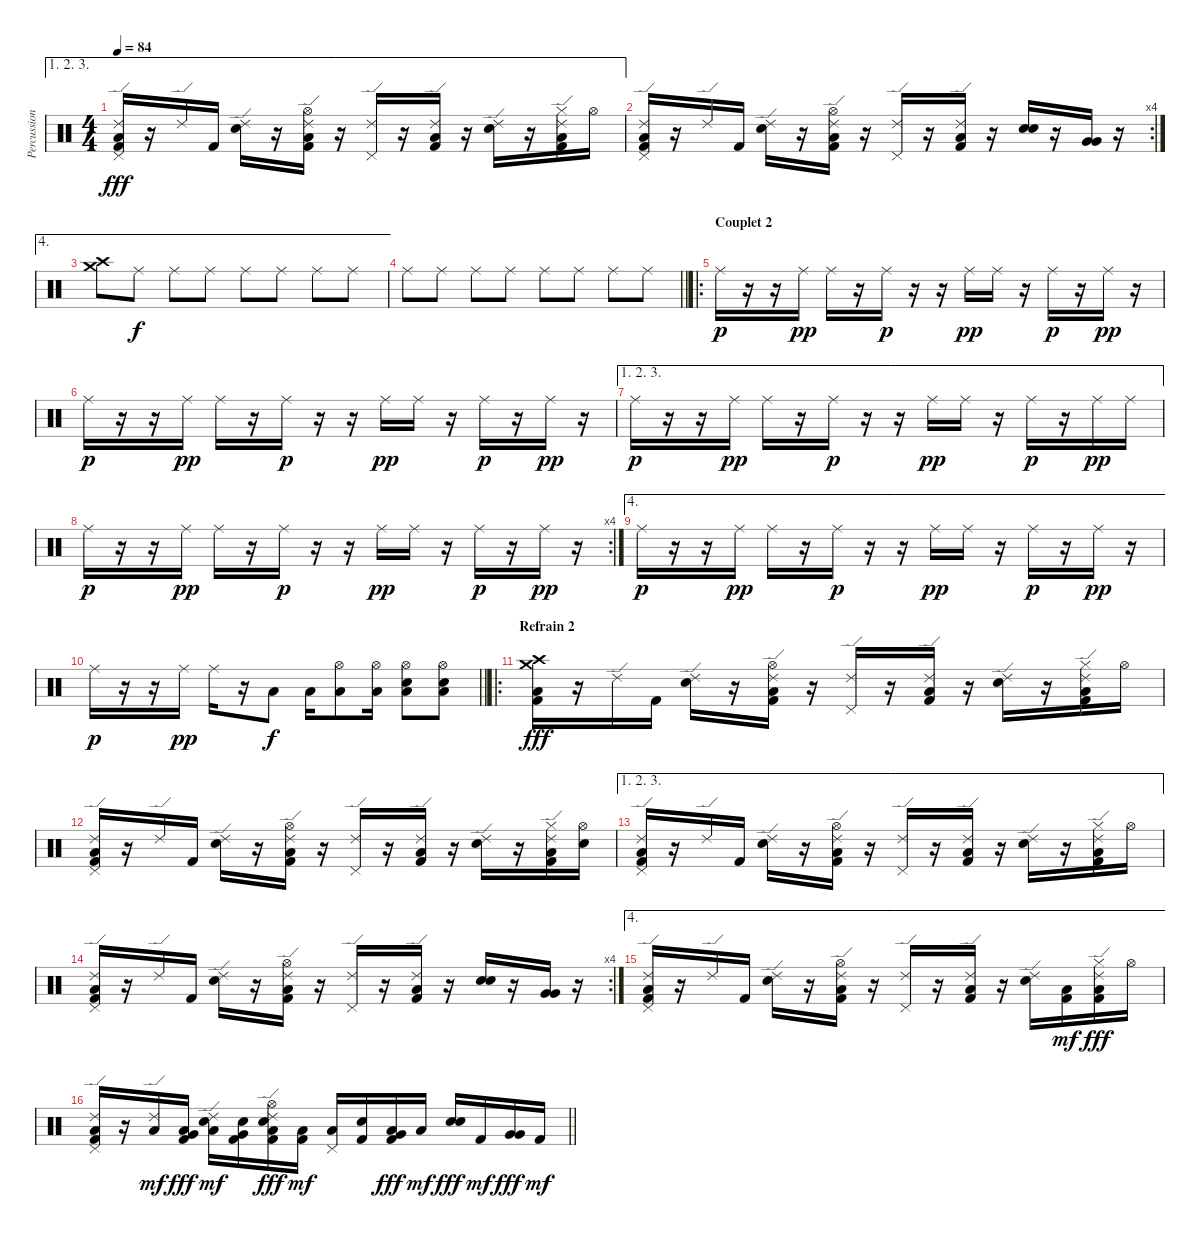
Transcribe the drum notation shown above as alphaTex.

\track ("Percussions" "Percussion") {instrument percussion}
\staff {score}
\articulation defaults
\ae (1 2 3)
\ts (4 4)
\tempo 84
\clef neutral
\ks c
("Ride (edge) 2" "Pedal Hi-Hat (hit)" "Low Floor Tom (hit)" "Kick (hit) 2").16{dy fff} r.16 "Ride (edge) 2".16 "Kick (hit) 2".16 ("Ride (edge) 2" "Electric Snare (hit)").16 r.16 ("Ride (edge) 2" "Hi-Hat (open)" "Low Floor Tom (hit)" "Kick (hit) 2").16 r.16 ("Ride (edge) 2" "Pedal Hi-Hat (hit)").16 r.16 ("Ride (edge) 2" "Low Floor Tom (hit)" "Kick (hit) 2").16 r.16 ("Ride (edge) 2" "Electric Snare (hit)").16 r.16 ("Ride (edge) 2" "Hi-Hat (closed)" "Low Floor Tom (hit)" "Kick (hit) 2").16 "Hi-Hat (open)".16 |
\rc 4
("Ride (edge) 2" "Pedal Hi-Hat (hit)" "Low Floor Tom (hit)" "Kick (hit) 2").16 r.16 "Ride (edge) 2".16 "Kick (hit) 2".16 ("Ride (edge) 2" "Electric Snare (hit)").16 r.16 ("Ride (edge) 2" "Hi-Hat (open)" "Low Floor Tom (hit)" "Kick (hit) 2").16 r.16 ("Ride (edge) 2" "Pedal Hi-Hat (hit)").16 r.16 ("Ride (edge) 2" "Low Floor Tom (hit)" "Kick (hit) 2").16 r.16 ("Electric Snare (hit)" "Electric Snare (hit)").16 r.16 ("Very Low Tom (hit)" "Very Low Tom (hit)").16 r.16 |
\ae 4
("Crash high (hit)" "Crash medium (hit)").8{volume 13} "Ride (middle)".8{dy f} "Ride (middle)".8 "Ride (middle)".8 "Ride (middle)".8 "Ride (middle)".8 "Ride (middle)".8 "Ride (middle)".8 |
\barLineRight lightlight "Ride (middle)".8 "Ride (middle)".8 "Ride (middle)".8 "Ride (middle)".8 "Ride (middle)".8 "Ride (middle)".8 "Ride (middle)".8 "Ride (middle)".8
|
\ro
\section ("" "Couplet 2")
"Ride (middle)".16{dy p volume 13} r.16 r.16 "Ride (middle)".16{dy pp} "Ride (middle)".16 r.16 "Ride (middle)".16{dy p} r.16 r.16 "Ride (middle)".16{dy pp} "Ride (middle)".16 r.16 "Ride (middle)".16{dy p} r.16 "Ride (middle)".16{dy pp} r.16 |
"Ride (middle)".16{dy p} r.16 r.16 "Ride (middle)".16{dy pp} "Ride (middle)".16 r.16 "Ride (middle)".16{dy p} r.16 r.16 "Ride (middle)".16{dy pp} "Ride (middle)".16 r.16 "Ride (middle)".16{dy p} r.16 "Ride (middle)".16{dy pp} r.16 |
\ae (1 2 3)
"Ride (middle)".16{dy p} r.16 r.16 "Ride (middle)".16{dy pp} "Ride (middle)".16 r.16 "Ride (middle)".16{dy p} r.16 r.16 "Ride (middle)".16{dy pp} "Ride (middle)".16 r.16 "Ride (middle)".16{dy p} r.16 "Ride (middle)".16{dy pp} "Ride (middle)".16 |
\rc 4 "Ride (middle)".16{dy p}
r.16 r.16 "Ride (middle)".16{dy pp} "Ride (middle)".16 r.16 "Ride (middle)".16{dy p} r.16 r.16 "Ride (middle)".16{dy pp} "Ride (middle)".16 r.16 "Ride (middle)".16{dy p} r.16 "Ride (middle)".16{dy pp} r.16 |
\ae 4 "Ride (middle)".16{dy p}
r.16 r.16 "Ride (middle)".16{dy pp} "Ride (middle)".16 r.16 "Ride (middle)".16{dy p} r.16 r.16 "Ride (middle)".16{dy pp} "Ride (middle)".16 r.16 "Ride (middle)".16{dy p} r.16 "Ride (middle)".16{dy pp} r.16 |
\barLineRight lightlight "Ride (middle)".16{dy p volume 16}
r.16 r.16 "Ride (middle)".16{dy pp} "Ride (middle)".16 r.16 "Low Floor Tom (hit)".8{dy f} "Low Floor Tom (hit)".16 ("Hi-Hat (open)" "Low Floor Tom (hit)").8 ("Hi-Hat (open)" "Low Floor Tom (hit)").16 ("Electric Snare (hit)" "Hi-Hat (open)" "Low Floor Tom (hit)").8 ("Electric Snare (hit)" "Hi-Hat (open)" "Low Floor Tom (hit)").8 |
\ro
\section ("" "Refrain 2")
("Crash medium (hit)" "Crash high (hit)" "Low Floor Tom (hit)" "Kick (hit) 2").16{dy fff} r.16 "Ride (edge) 2".16 "Kick (hit) 2".16 ("Ride (edge) 2" "Electric Snare (hit)").16 r.16 ("Ride (edge) 2" "Hi-Hat (open)" "Low Floor Tom (hit)" "Kick (hit) 2").16 r.16 ("Ride (edge) 2" "Pedal Hi-Hat (hit)").16 r.16 ("Ride (edge) 2" "Low Floor Tom (hit)" "Kick (hit) 2").16 r.16 ("Ride (edge) 2" "Electric Snare (hit)").16 r.16 ("Ride (edge) 2" "Hi-Hat (closed)" "Low Floor Tom (hit)" "Kick (hit) 2").16 "Hi-Hat (open)".16 |
("Ride (edge) 2" "Pedal Hi-Hat (hit)" "Low Floor Tom (hit)" "Kick (hit) 2").16 r.16 "Ride (edge) 2".16 "Kick (hit) 2".16 ("Ride (edge) 2" "Electric Snare (hit)").16 r.16 ("Ride (edge) 2" "Hi-Hat (open)" "Low Floor Tom (hit)" "Kick (hit) 2").16 r.16 ("Ride (edge) 2" "Pedal Hi-Hat (hit)").16 r.16 ("Ride (edge) 2" "Low Floor Tom (hit)" "Kick (hit) 2").16 r.16 ("Ride (edge) 2" "Electric Snare (hit)").16 r.16 ("Ride (edge) 2" "Hi-Hat (closed)" "Low Floor Tom (hit)" "Kick (hit) 2").16 ("Hi-Hat (open)" "Electric Snare (hit)").16 |
\ae (1 2 3)
("Ride (edge) 2" "Pedal Hi-Hat (hit)" "Low Floor Tom (hit)" "Kick (hit) 2").16 r.16 "Ride (edge) 2".16 "Kick (hit) 2".16 ("Ride (edge) 2" "Electric Snare (hit)").16 r.16 ("Ride (edge) 2" "Hi-Hat (open)" "Low Floor Tom (hit)" "Kick (hit) 2").16 r.16 ("Ride (edge) 2" "Pedal Hi-Hat (hit)").16 r.16 ("Ride (edge) 2" "Low Floor Tom (hit)" "Kick (hit) 2").16 r.16 ("Ride (edge) 2" "Electric Snare (hit)").16 r.16 ("Ride (edge) 2" "Hi-Hat (closed)" "Low Floor Tom (hit)" "Kick (hit) 2").16 "Hi-Hat (open)".16 |
\rc 4
("Ride (edge) 2" "Pedal Hi-Hat (hit)" "Low Floor Tom (hit)" "Kick (hit) 2").16 r.16 "Ride (edge) 2".16 "Kick (hit) 2".16 ("Ride (edge) 2" "Electric Snare (hit)").16 r.16 ("Ride (edge) 2" "Hi-Hat (open)" "Low Floor Tom (hit)" "Kick (hit) 2").16 r.16 ("Ride (edge) 2" "Pedal Hi-Hat (hit)").16 r.16 ("Ride (edge) 2" "Low Floor Tom (hit)" "Kick (hit) 2").16 r.16 ("Electric Snare (hit)" "Electric Snare (hit)").16 r.16 ("Very Low Tom (hit)" "Very Low Tom (hit)").16 r.16 |
\ae 4
("Ride (edge) 2" "Pedal Hi-Hat (hit)" "Low Floor Tom (hit)" "Kick (hit) 2").16 r.16 "Ride (edge) 2".16 "Kick (hit) 2".16 ("Ride (edge) 2" "Electric Snare (hit)").16 r.16 ("Ride (edge) 2" "Hi-Hat (open)" "Low Floor Tom (hit)" "Kick (hit) 2").16 r.16 ("Ride (edge) 2" "Pedal Hi-Hat (hit)").16 r.16 ("Ride (edge) 2" "Low Floor Tom (hit)" "Kick (hit) 2").16 r.16 ("Ride (edge) 2" "Electric Snare (hit)").16 ("Kick (hit) 2" "Low Floor Tom (hit)").16{dy mf} ("Ride (edge) 2" "Hi-Hat (closed)" "Low Floor Tom (hit)" "Kick (hit) 2").16{dy fff} "Hi-Hat (open)".16 |
\barLineRight lightlight
("Ride (edge) 2" "Pedal Hi-Hat (hit)" "Low Floor Tom (hit)" "Kick (hit) 2").16 r.16 ("Ride (edge) 2" "Low Floor Tom (hit)").16{dy mf} ("Very Low Tom (hit)" "Low Floor Tom (hit)" "Kick (hit) 2").16{dy fff} ("Ride (edge) 2" "Electric Snare (hit)" "Low Floor Tom (hit)").16{dy mf} ("Kick (hit) 2" "Electric Snare (hit)" "Very Low Tom (hit)").16 ("Ride (edge) 2" "Hi-Hat (open)" "Electric Snare (hit)" "Low Floor Tom (hit)" "Kick (hit) 2").16{dy fff} ("Kick (hit) 2" "Low Floor Tom (hit)").16{dy mf} ("Pedal Hi-Hat (hit)" "Low Floor Tom (hit)").16 ("Kick (hit) 2" "Electric Snare (hit)").16 ("Very Low Tom (hit)" "Low Floor Tom (hit)" "Kick (hit) 2").16{dy fff} "Low Floor Tom (hit)".16{dy mf} ("Electric Snare (hit)" "Electric Snare (hit)").16{dy fff} "Kick (hit) 2".16{dy mf} ("Very Low Tom (hit)" "Very Low Tom (hit)").16{dy fff} "Kick (hit) 2".16{dy mf}
